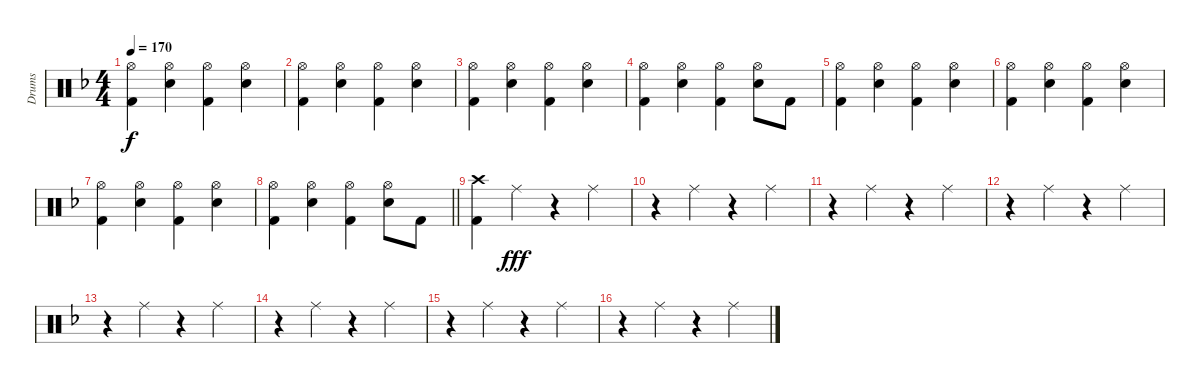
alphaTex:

\track ("Drums" "Drums") {instrument percussion}
\staff {score}
\articulation defaults
\ts (4 4)
\tempo 170
\clef neutral
\ks f
("Hi-Hat (open)" "Kick (hit) 2").4{dy f} ("Hi-Hat (open)" "Electric Snare (hit)").4 ("Hi-Hat (open)" "Kick (hit) 2").4 ("Hi-Hat (open)" "Electric Snare (hit)").4 |
("Hi-Hat (open)" "Kick (hit) 2").4 ("Hi-Hat (open)" "Electric Snare (hit)").4 ("Hi-Hat (open)" "Kick (hit) 2").4 ("Hi-Hat (open)" "Electric Snare (hit)").4 |
("Hi-Hat (open)" "Kick (hit) 2").4 ("Hi-Hat (open)" "Electric Snare (hit)").4 ("Hi-Hat (open)" "Kick (hit) 2").4 ("Hi-Hat (open)" "Electric Snare (hit)").4 |
("Hi-Hat (open)" "Kick (hit) 2").4 ("Hi-Hat (open)" "Electric Snare (hit)").4 ("Hi-Hat (open)" "Kick (hit) 2").4 ("Hi-Hat (open)" "Electric Snare (hit)").8 "Kick (hit) 2".8 |
("Hi-Hat (open)" "Kick (hit) 2").4 ("Hi-Hat (open)" "Electric Snare (hit)").4 ("Hi-Hat (open)" "Kick (hit) 2").4 ("Hi-Hat (open)" "Electric Snare (hit)").4 |
("Hi-Hat (open)" "Kick (hit) 2").4 ("Hi-Hat (open)" "Electric Snare (hit)").4 ("Hi-Hat (open)" "Kick (hit) 2").4 ("Hi-Hat (open)" "Electric Snare (hit)").4 |
("Hi-Hat (open)" "Kick (hit) 2").4 ("Hi-Hat (open)" "Electric Snare (hit)").4 ("Hi-Hat (open)" "Kick (hit) 2").4 ("Hi-Hat (open)" "Electric Snare (hit)").4 |
\barLineRight lightlight
("Hi-Hat (open)" "Kick (hit) 2").4 ("Hi-Hat (open)" "Electric Snare (hit)").4 ("Hi-Hat (open)" "Kick (hit) 2").4 ("Hi-Hat (open)" "Electric Snare (hit)").8 "Kick (hit) 2".8 |
("Crash high (hit)" "Kick (hit) 2").4 "Ride (middle)".4{dy fff} r.4 "Ride (middle)".4 |
r.4 "Ride (middle)".4 r.4 "Ride (middle)".4 |
r.4 "Ride (middle)".4 r.4 "Ride (middle)".4 |
r.4 "Ride (middle)".4 r.4 "Ride (middle)".4 |
r.4 "Ride (middle)".4 r.4 "Ride (middle)".4 |
r.4 "Ride (middle)".4 r.4 "Ride (middle)".4 |
r.4 "Ride (middle)".4 r.4 "Ride (middle)".4 |
r.4 "Ride (middle)".4 r.4 "Ride (middle)".4
